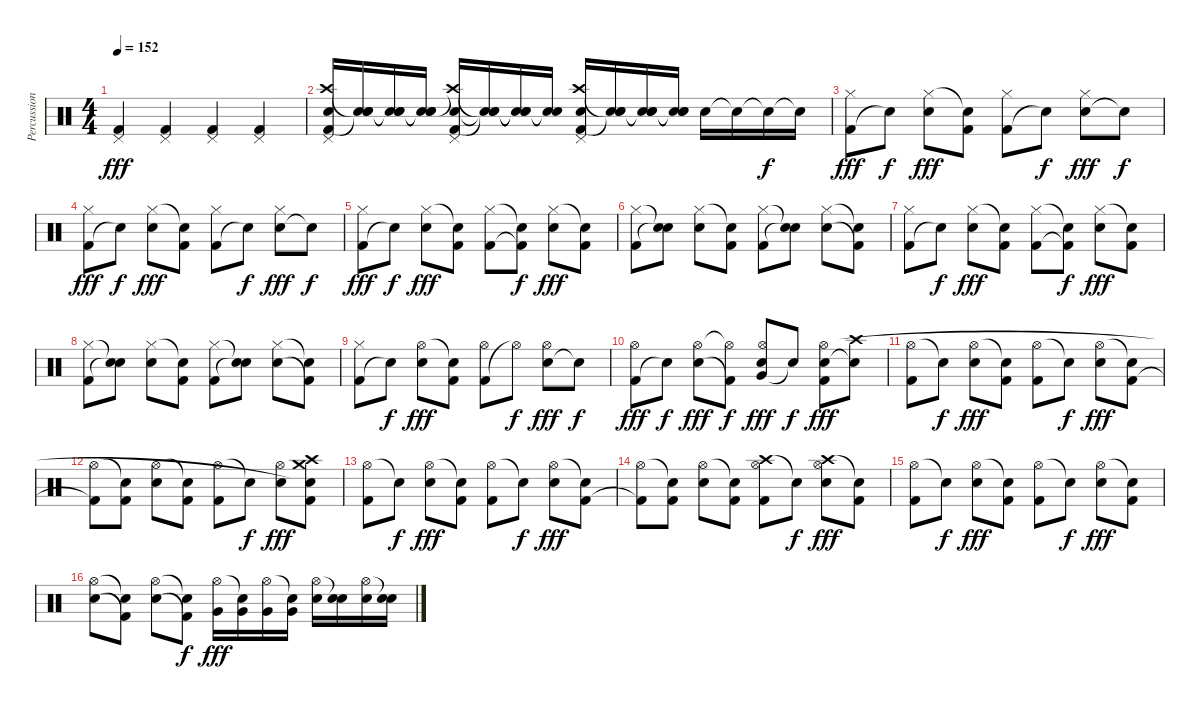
\track ("Percussion" "Percussion") {instrument percussion}
\staff {score}
\articulation defaults
\ts (4 4)
\tempo 152
\clef neutral
\ks c
("Pedal Hi-Hat (hit)" "Kick (hit) 2").4{dy fff} ("Pedal Hi-Hat (hit)" "Kick (hit) 2").4 ("Pedal Hi-Hat (hit)" "Kick (hit) 2").4 ("Pedal Hi-Hat (hit)" "Kick (hit) 2").4 |
("Crash high (hit)" "Electric Snare (hit)" "Kick (hit) 2" "Pedal Hi-Hat (hit)").16 ("Snare (hit)"{t} "Electric Snare (hit)" "Snare (hit)"{t}).16 ("Snare (hit)"{t} "Electric Snare (hit)" "Snare (hit)"{t}).16 ("Snare (hit)"{t} "Electric Snare (hit)" "Snare (hit)"{t}).16 ("Crash high (hit)"{t} "Electric Snare (hit)" "Kick (hit) 2" "Pedal Hi-Hat (hit)").16 ("Snare (hit)"{t} "Electric Snare (hit)"{t} "Snare (hit)"{t}).16 ("Snare (hit)"{t} "Electric Snare (hit)"{t} "Snare (hit)"{t}).16 ("Snare (hit)"{t} "Snare (hit)"{t}).16 ("Crash high (hit)" "Electric Snare (hit)" "Kick (hit) 2" "Pedal Hi-Hat (hit)").16 ("Snare (hit)"{t} "Electric Snare (hit)" "Snare (hit)"{t}).16 ("Snare (hit)"{t} "Electric Snare (hit)" "Snare (hit)"{t}).16 ("Snare (hit)"{t} "Electric Snare (hit)" "Snare (hit)"{t}).16 "Electric Snare (hit)".16 "Snare (hit)"{t}.16 "Snare (hit)"{t}.16{dy f} "Snare (hit)"{t}.16 |
("Kick (hit) 2" "Hi-Hat (closed)").8{dy fff} "Snare (hit)"{t}.8{dy f} ("Electric Snare (hit)" "Hi-Hat (closed)").8{dy fff} ("Kick (hit) 2" "Snare (hit)"{t}).8 ("Kick (hit) 2" "Hi-Hat (closed)").8 "Snare (hit)"{t}.8{dy f} ("Electric Snare (hit)" "Hi-Hat (closed)").8{dy fff} "Snare (hit)"{t}.8{dy f} |
("Kick (hit) 2" "Hi-Hat (closed)").8{dy fff} "Snare (hit)"{t}.8{dy f} ("Electric Snare (hit)" "Hi-Hat (closed)").8{dy fff} ("Kick (hit) 2" "Snare (hit)"{t}).8 ("Kick (hit) 2" "Hi-Hat (closed)").8 "Snare (hit)"{t}.8{dy f} ("Electric Snare (hit)" "Hi-Hat (closed)").8{dy fff} "Snare (hit)"{t}.8{dy f} |
("Kick (hit) 2" "Hi-Hat (closed)").8{dy fff} "Snare (hit)"{t}.8{dy f} ("Electric Snare (hit)" "Hi-Hat (closed)").8{dy fff} ("Kick (hit) 2" "Snare (hit)"{t}).8 ("Kick (hit) 2" "Hi-Hat (closed)").8 ("Kick (hit) 2"{t} "Snare (hit)"{t}).8{dy f} ("Electric Snare (hit)" "Hi-Hat (closed)").8{dy fff} ("Kick (hit) 2" "Snare (hit)"{t}).8 |
("Kick (hit) 2" "Hi-Hat (closed)").8 ("Electric Snare (hit)"{t} "Snare (hit)"{t}).8 ("Electric Snare (hit)" "Hi-Hat (closed)").8 ("Kick (hit) 2" "Snare (hit)"{t}).8 ("Kick (hit) 2" "Hi-Hat (closed)").8 ("Electric Snare (hit)"{t} "Snare (hit)"{t}).8 ("Electric Snare (hit)" "Hi-Hat (closed)").8 ("Kick (hit) 2"{t} "Snare (hit)"{t}).8 |
("Kick (hit) 2" "Hi-Hat (closed)").8 "Snare (hit)"{t}.8{dy f} ("Electric Snare (hit)" "Hi-Hat (closed)").8{dy fff} ("Kick (hit) 2" "Snare (hit)"{t}).8 ("Kick (hit) 2" "Hi-Hat (closed)").8 ("Kick (hit) 2"{t} "Snare (hit)"{t}).8{dy f} ("Electric Snare (hit)" "Hi-Hat (closed)").8{dy fff} ("Kick (hit) 2" "Snare (hit)"{t}).8 |
("Kick (hit) 2" "Hi-Hat (closed)").8 ("Electric Snare (hit)"{t} "Snare (hit)"{t}).8 ("Electric Snare (hit)" "Hi-Hat (closed)").8 ("Kick (hit) 2" "Snare (hit)"{t}).8 ("Kick (hit) 2" "Hi-Hat (closed)").8 ("Electric Snare (hit)"{t} "Snare (hit)"{t}).8 ("Electric Snare (hit)" "Hi-Hat (closed)").8 ("Kick (hit) 2"{t} "Snare (hit)"{t}).8 |
("Kick (hit) 2" "Hi-Hat (closed)").8 "Snare (hit)"{t}.8{dy f} ("Electric Snare (hit)" "Hi-Hat (open)").8{dy fff} ("Kick (hit) 2" "Snare (hit)"{t}).8 ("Kick (hit) 2" "Hi-Hat (open)").8 "Hi-Hat (open)"{t}.8{dy f} ("Electric Snare (hit)" "Hi-Hat (open)").8{dy fff} "Snare (hit)"{t}.8{dy f} |
("Kick (hit) 2" "Hi-Hat (open)").8{dy fff} "Snare (hit)"{t}.8{dy f} ("Electric Snare (hit)" "Hi-Hat (open)").8{dy fff} ("Kick (hit) 2"{t} "Hi-Hat (open)"{t}).8{dy f} ("Very Low Tom (hit)" "Electric Snare (hit)" "Hi-Hat (open)").8{dy fff} "Snare (hit)"{t}.8{dy f} ("Kick (hit) 2" "Electric Snare (hit)" "Hi-Hat (open)").8{dy fff} ("Crash high (hit)" "Snare (hit)"{t}).8 |
("Hi-Hat (open)" "Kick (hit) 2").8 "Snare (hit)"{t}.8{dy f} ("Hi-Hat (open)" "Electric Snare (hit)").8{dy fff} ("Snare (hit)"{t} "Kick (hit) 2").8 ("Hi-Hat (open)" "Kick (hit) 2").8 "Snare (hit)"{t}.8{dy f} ("Hi-Hat (open)" "Electric Snare (hit)").8{dy fff} ("Snare (hit)"{t} "Kick (hit) 2").8 |
("Hi-Hat (open)" "Kick (hit) 2"{t}).8 ("Snare (hit)"{t} "Kick (hit) 2").8 ("Hi-Hat (open)" "Electric Snare (hit)").8 ("Snare (hit)"{t} "Kick (hit) 2").8 ("Hi-Hat (open)" "Kick (hit) 2").8 "Snare (hit)"{t}.8{dy f} ("Hi-Hat (open)" "Electric Snare (hit)").8{dy fff} ("Crash medium (hit)" "Crash high (hit)" "Snare (hit)"{t} "Kick (hit) 2").8 |
("Hi-Hat (open)" "Kick (hit) 2").8 "Snare (hit)"{t}.8{dy f} ("Hi-Hat (open)" "Electric Snare (hit)").8{dy fff} ("Snare (hit)"{t} "Kick (hit) 2").8 ("Hi-Hat (open)" "Kick (hit) 2").8 "Snare (hit)"{t}.8{dy f} ("Hi-Hat (open)" "Electric Snare (hit)").8{dy fff} ("Snare (hit)"{t} "Kick (hit) 2").8 |
("Hi-Hat (open)" "Kick (hit) 2"{t}).8 ("Snare (hit)"{t} "Kick (hit) 2").8 ("Hi-Hat (open)" "Electric Snare (hit)").8 ("Snare (hit)"{t} "Kick (hit) 2").8 ("Crash high (hit)" "Hi-Hat (open)" "Kick (hit) 2").8 "Snare (hit)"{t}.8{dy f} ("Crash high (hit)" "Hi-Hat (open)" "Electric Snare (hit)").8{dy fff} ("Snare (hit)"{t} "Kick (hit) 2").8 |
("Hi-Hat (open)" "Kick (hit) 2").8 "Snare (hit)"{t}.8{dy f} ("Hi-Hat (open)" "Electric Snare (hit)").8{dy fff} ("Snare (hit)"{t} "Kick (hit) 2").8 ("Hi-Hat (open)" "Kick (hit) 2").8 "Snare (hit)"{t}.8{dy f} ("Hi-Hat (open)" "Electric Snare (hit)").8{dy fff} ("Snare (hit)"{t} "Kick (hit) 2").8 |
("Hi-Hat (open)" "Electric Snare (hit)").8 ("Snare (hit)"{t} "Kick (hit) 2"{t}).8 ("Hi-Hat (open)" "Electric Snare (hit)").8 ("Snare (hit)"{t} "Kick (hit) 2"{t}).8{dy f} ("Hi-Hat (open)" "Very Low Tom (hit)").16{dy fff} ("Snare (hit)"{t} "Very Low Tom (hit)").16 ("Hi-Hat (open)" "Very Low Tom (hit)").16 ("Snare (hit)"{t} "Very Low Tom (hit)").16 ("Hi-Hat (open)" "Electric Snare (hit)").16 ("Snare (hit)"{t} "Electric Snare (hit)").16 ("Hi-Hat (open)" "Electric Snare (hit)").16 ("Snare (hit)"{t} "Electric Snare (hit)").16
